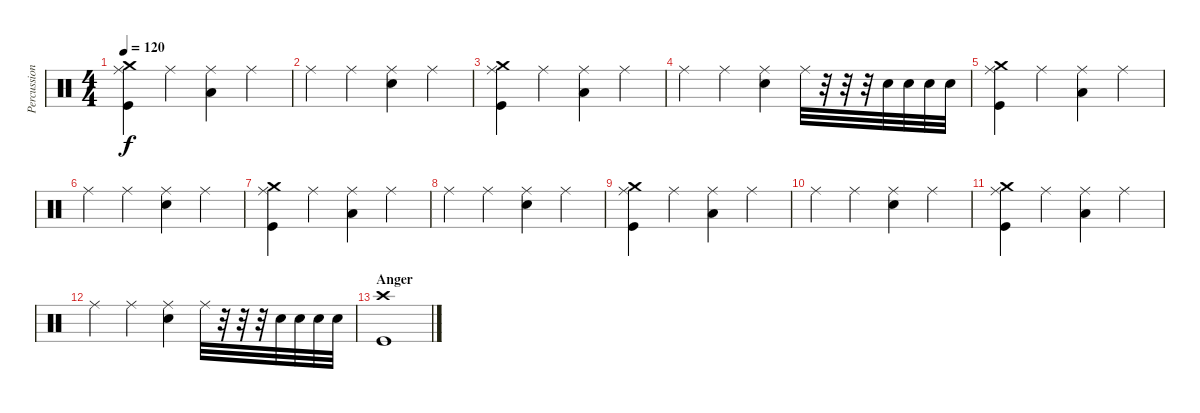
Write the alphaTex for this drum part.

\track ("Percussion" "Percussion") {instrument percussion}
\staff {score}
\articulation defaults
\ts (4 4)
\tempo 120
\clef neutral
\ks c
("Crash medium (hit)" "Ride (middle)" "Kick (hit)").4{dy f} "Ride (middle)".4 ("Low Floor Tom (hit)" "Ride (middle)").4 "Ride (middle)".4 |
"Ride (middle)".4 "Ride (middle)".4 ("Electric Snare (hit)" "Ride (middle)").4 "Ride (middle)".4 |
("Crash medium (hit)" "Ride (middle)" "Kick (hit)").4 "Ride (middle)".4 ("Low Floor Tom (hit)" "Ride (middle)").4 "Ride (middle)".4 |
"Ride (middle)".4 "Ride (middle)".4 ("Electric Snare (hit)" "Ride (middle)").4 "Ride (middle)".32 r.32 r.32 r.32 "Electric Snare (hit)".32 "Electric Snare (hit)".32 "Electric Snare (hit)".32 "Electric Snare (hit)".32 |
("Crash medium (hit)" "Ride (middle)" "Kick (hit)").4 "Ride (middle)".4 ("Low Floor Tom (hit)" "Ride (middle)").4 "Ride (middle)".4 |
"Ride (middle)".4 "Ride (middle)".4 ("Electric Snare (hit)" "Ride (middle)").4 "Ride (middle)".4 |
("Crash medium (hit)" "Ride (middle)" "Kick (hit)").4 "Ride (middle)".4 ("Low Floor Tom (hit)" "Ride (middle)").4 "Ride (middle)".4 |
"Ride (middle)".4 "Ride (middle)".4 ("Electric Snare (hit)" "Ride (middle)").4 "Ride (middle)".4 |
("Crash medium (hit)" "Ride (middle)" "Kick (hit)").4 "Ride (middle)".4 ("Low Floor Tom (hit)" "Ride (middle)").4 "Ride (middle)".4 |
"Ride (middle)".4 "Ride (middle)".4 ("Electric Snare (hit)" "Ride (middle)").4 "Ride (middle)".4 |
("Crash medium (hit)" "Ride (middle)" "Kick (hit)").4 "Ride (middle)".4 ("Low Floor Tom (hit)" "Ride (middle)").4 "Ride (middle)".4 |
"Ride (middle)".4 "Ride (middle)".4 ("Electric Snare (hit)" "Ride (middle)").4 "Ride (middle)".32 r.32 r.32 r.32 "Electric Snare (hit)".32 "Electric Snare (hit)".32 "Electric Snare (hit)".32 "Electric Snare (hit)".32 |
\section ("" "Anger")
("Crash high (hit)" "Kick (hit)").1
